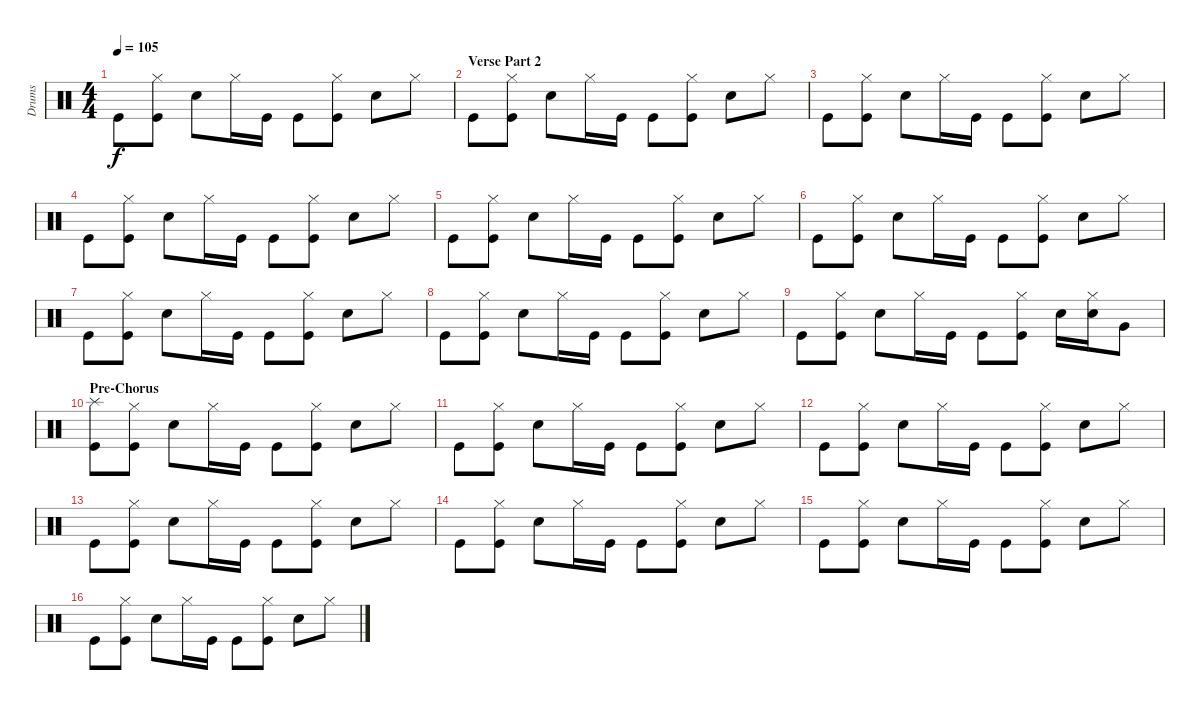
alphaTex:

\track ("Drums" "Drums") {instrument percussion}
\staff {score}
\articulation defaults
\ts (4 4)
\tempo 105
\clef neutral
\ks c "Kick (hit)".8{dy f}
("Kick (hit)" "Hi-Hat (closed)").8 "Electric Snare (hit)".8 "Hi-Hat (closed)".16 "Kick (hit)".16 "Kick (hit)".8 ("Kick (hit)" "Hi-Hat (closed)").8 "Electric Snare (hit)".8 "Hi-Hat (closed)".8 |
\section ("" "Verse Part 2")
"Kick (hit)".8 ("Kick (hit)" "Hi-Hat (closed)").8 "Electric Snare (hit)".8 "Hi-Hat (closed)".16 "Kick (hit)".16 "Kick (hit)".8 ("Kick (hit)" "Hi-Hat (closed)").8 "Electric Snare (hit)".8 "Hi-Hat (closed)".8 |
"Kick (hit)".8 ("Kick (hit)" "Hi-Hat (closed)").8 "Electric Snare (hit)".8 "Hi-Hat (closed)".16 "Kick (hit)".16 "Kick (hit)".8 ("Kick (hit)" "Hi-Hat (closed)").8 "Electric Snare (hit)".8 "Hi-Hat (closed)".8 |
"Kick (hit)".8 ("Kick (hit)" "Hi-Hat (closed)").8 "Electric Snare (hit)".8 "Hi-Hat (closed)".16 "Kick (hit)".16 "Kick (hit)".8 ("Kick (hit)" "Hi-Hat (closed)").8 "Electric Snare (hit)".8 "Hi-Hat (closed)".8 |
"Kick (hit)".8 ("Kick (hit)" "Hi-Hat (closed)").8 "Electric Snare (hit)".8 "Hi-Hat (closed)".16 "Kick (hit)".16 "Kick (hit)".8 ("Kick (hit)" "Hi-Hat (closed)").8 "Electric Snare (hit)".8 "Hi-Hat (closed)".8 |
"Kick (hit)".8 ("Kick (hit)" "Hi-Hat (closed)").8 "Electric Snare (hit)".8 "Hi-Hat (closed)".16 "Kick (hit)".16 "Kick (hit)".8 ("Kick (hit)" "Hi-Hat (closed)").8 "Electric Snare (hit)".8 "Hi-Hat (closed)".8 |
"Kick (hit)".8 ("Kick (hit)" "Hi-Hat (closed)").8 "Electric Snare (hit)".8 "Hi-Hat (closed)".16 "Kick (hit)".16 "Kick (hit)".8 ("Kick (hit)" "Hi-Hat (closed)").8 "Electric Snare (hit)".8 "Hi-Hat (closed)".8 |
"Kick (hit)".8 ("Kick (hit)" "Hi-Hat (closed)").8 "Electric Snare (hit)".8 "Hi-Hat (closed)".16 "Kick (hit)".16 "Kick (hit)".8 ("Kick (hit)" "Hi-Hat (closed)").8 "Electric Snare (hit)".8 "Hi-Hat (closed)".8 |
"Kick (hit)".8 ("Kick (hit)" "Hi-Hat (closed)").8 "Electric Snare (hit)".8 "Hi-Hat (closed)".16 "Kick (hit)".16 "Kick (hit)".8 ("Kick (hit)" "Hi-Hat (closed)").8 "Electric Snare (hit)".16 ("Electric Snare (hit)" "Hi-Hat (closed)").16 "Very Low Tom (hit)".8 |
\section ("" "Pre-Chorus")
("Kick (hit)" "Splash (hit)").8 ("Kick (hit)" "Hi-Hat (closed)").8 "Electric Snare (hit)".8 "Hi-Hat (closed)".16 "Kick (hit)".16 "Kick (hit)".8 ("Kick (hit)" "Hi-Hat (closed)").8 "Electric Snare (hit)".8 "Hi-Hat (closed)".8 |
"Kick (hit)".8 ("Kick (hit)" "Hi-Hat (closed)").8 "Electric Snare (hit)".8 "Hi-Hat (closed)".16 "Kick (hit)".16 "Kick (hit)".8 ("Kick (hit)" "Hi-Hat (closed)").8 "Electric Snare (hit)".8 "Hi-Hat (closed)".8 |
"Kick (hit)".8 ("Kick (hit)" "Hi-Hat (closed)").8 "Electric Snare (hit)".8 "Hi-Hat (closed)".16 "Kick (hit)".16 "Kick (hit)".8 ("Kick (hit)" "Hi-Hat (closed)").8 "Electric Snare (hit)".8 "Hi-Hat (closed)".8 |
"Kick (hit)".8 ("Kick (hit)" "Hi-Hat (closed)").8 "Electric Snare (hit)".8 "Hi-Hat (closed)".16 "Kick (hit)".16 "Kick (hit)".8 ("Kick (hit)" "Hi-Hat (closed)").8 "Electric Snare (hit)".8 "Hi-Hat (closed)".8 |
"Kick (hit)".8 ("Kick (hit)" "Hi-Hat (closed)").8 "Electric Snare (hit)".8 "Hi-Hat (closed)".16 "Kick (hit)".16 "Kick (hit)".8 ("Kick (hit)" "Hi-Hat (closed)").8 "Electric Snare (hit)".8 "Hi-Hat (closed)".8 |
"Kick (hit)".8 ("Kick (hit)" "Hi-Hat (closed)").8 "Electric Snare (hit)".8 "Hi-Hat (closed)".16 "Kick (hit)".16 "Kick (hit)".8 ("Kick (hit)" "Hi-Hat (closed)").8 "Electric Snare (hit)".8 "Hi-Hat (closed)".8 |
"Kick (hit)".8 ("Kick (hit)" "Hi-Hat (closed)").8 "Electric Snare (hit)".8 "Hi-Hat (closed)".16 "Kick (hit)".16 "Kick (hit)".8 ("Kick (hit)" "Hi-Hat (closed)").8 "Electric Snare (hit)".8 "Hi-Hat (closed)".8
